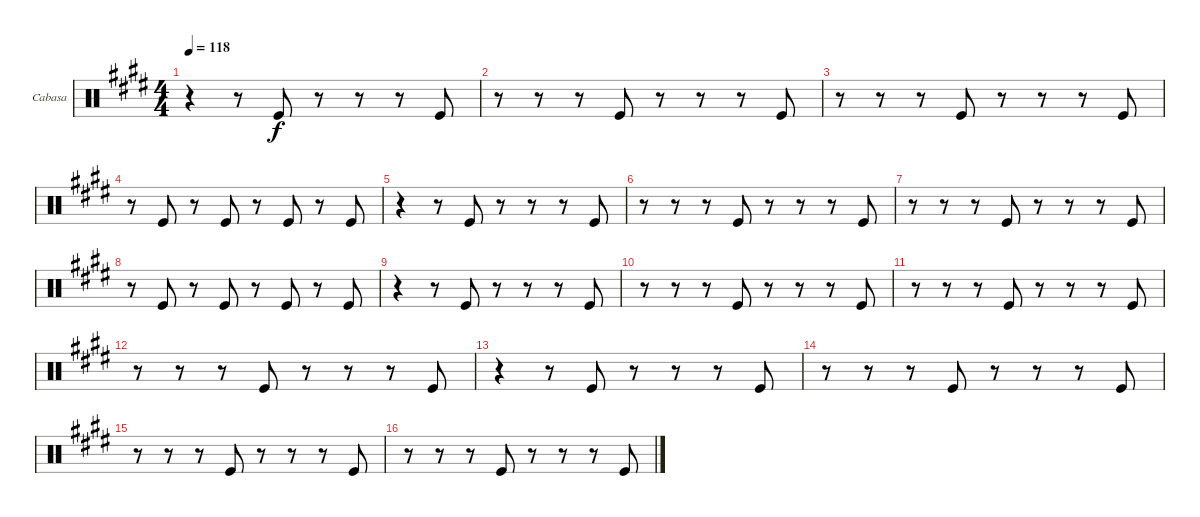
\bracketExtendMode groupsimilarinstruments
\firstSystemTrackNameOrientation horizontal
\otherSystemsTrackNameOrientation horizontal
\track ("Cabasa" "Cabasa") {instrument percussion}
\staff {score}
\articulation defaults
\ts (4 4)
\tempo 118
\clef neutral
\ks e
r.4{dy f} r.8 "Kick (hit)".8 r.8 r.8 r.8 "Kick (hit)".8 |
r.8 r.8 r.8 "Kick (hit)".8 r.8 r.8 r.8 "Kick (hit)".8 |
r.8 r.8 r.8 "Kick (hit)".8 r.8 r.8 r.8 "Kick (hit)".8 |
r.8 "Kick (hit)".8 r.8 "Kick (hit)".8 r.8 "Kick (hit)".8 r.8 "Kick (hit)".8 |
r.4 r.8 "Kick (hit)".8 r.8 r.8 r.8 "Kick (hit)".8 |
r.8 r.8 r.8 "Kick (hit)".8 r.8 r.8 r.8 "Kick (hit)".8 |
r.8 r.8 r.8 "Kick (hit)".8 r.8 r.8 r.8 "Kick (hit)".8 |
r.8 "Kick (hit)".8 r.8 "Kick (hit)".8 r.8 "Kick (hit)".8 r.8 "Kick (hit)".8 |
r.4 r.8 "Kick (hit)".8 r.8 r.8 r.8 "Kick (hit)".8 |
r.8 r.8 r.8 "Kick (hit)".8 r.8 r.8 r.8 "Kick (hit)".8 |
r.8 r.8 r.8 "Kick (hit)".8 r.8 r.8 r.8 "Kick (hit)".8 |
r.8 r.8 r.8 "Kick (hit)".8 r.8 r.8 r.8 "Kick (hit)".8 |
r.4 r.8 "Kick (hit)".8 r.8 r.8 r.8 "Kick (hit)".8 |
r.8 r.8 r.8 "Kick (hit)".8 r.8 r.8 r.8 "Kick (hit)".8 |
r.8 r.8 r.8 "Kick (hit)".8 r.8 r.8 r.8 "Kick (hit)".8 |
r.8 r.8 r.8 "Kick (hit)".8 r.8 r.8 r.8 "Kick (hit)".8
